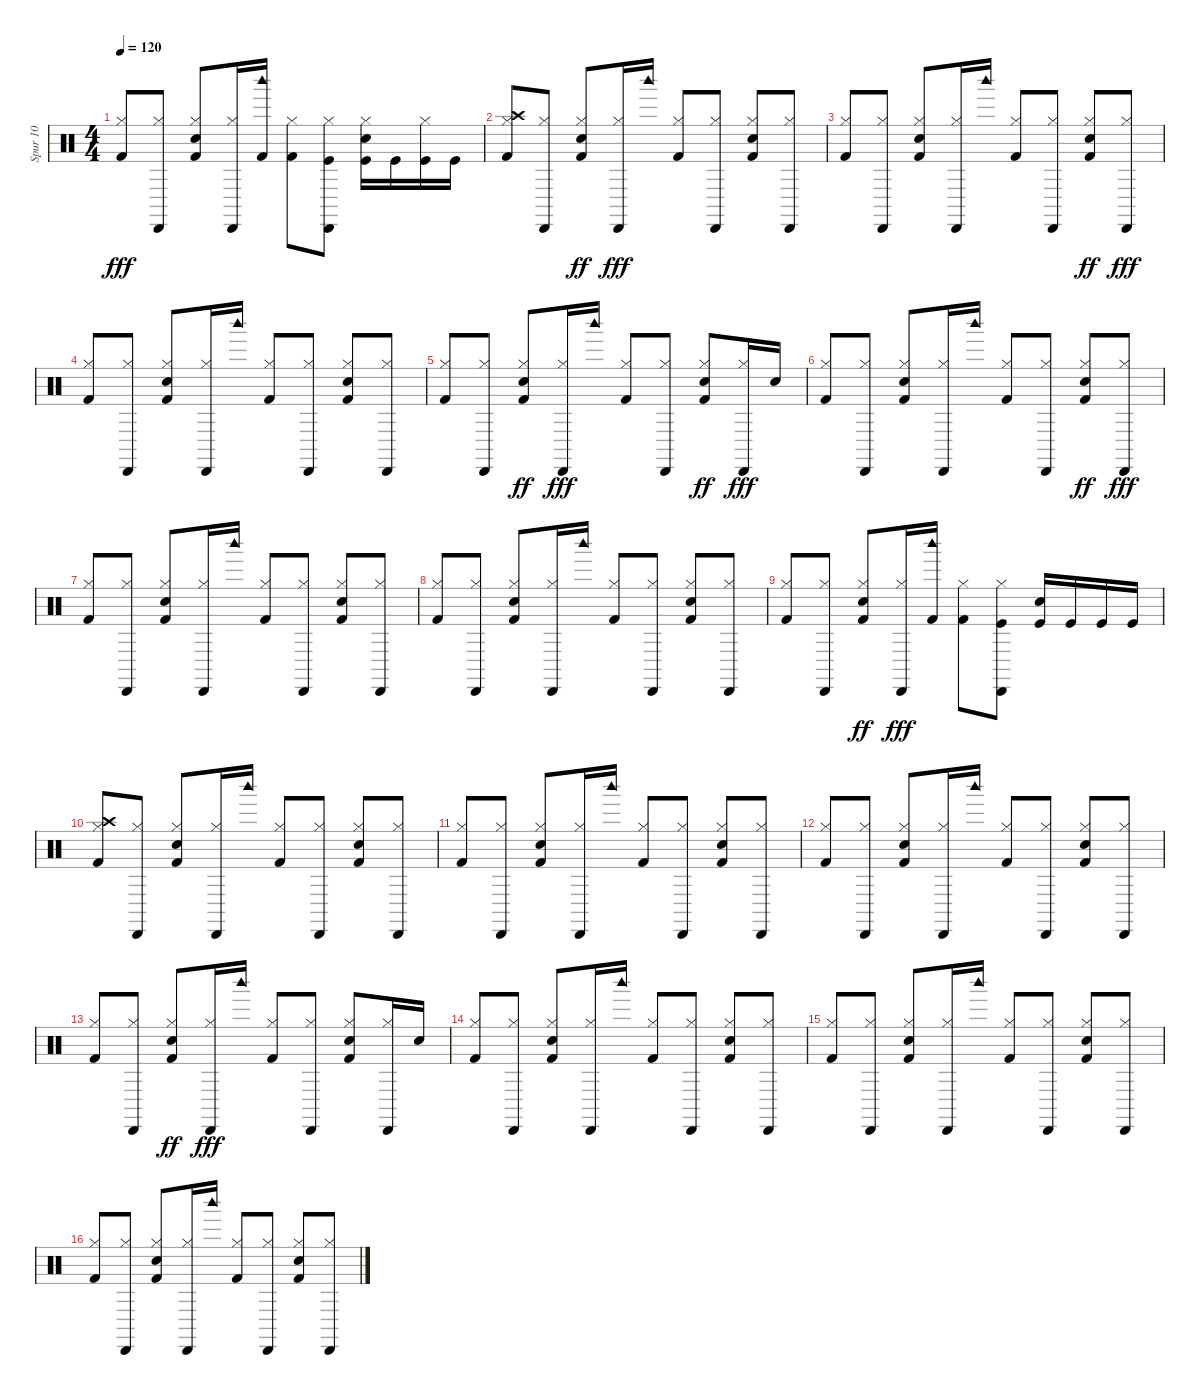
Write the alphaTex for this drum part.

\track ("Spur 10" "Spur 10") {instrument percussion}
\staff {score}
\articulation defaults
\ts (4 4)
\tempo 120
\clef neutral
\ks c
("Hi-Hat (closed)" "Kick (hit) 2").8{dy fff} ("Hi-Hat (closed)" "Cabasa (hit)").8 ("Hi-Hat (closed)" "Hand Clap (hit)" "Kick (hit) 2").8 ("Cabasa (hit)" "Hi-Hat (closed)").16 ("Woodblock high (hit)" "Kick (hit) 2").16 ("Kick (hit) 2" "Hi-Hat (closed)").8 ("Kick (hit)" "Cabasa (hit)" "Hi-Hat (closed)").8 ("Hand Clap (hit)" "Kick (hit)" "Hi-Hat (closed)").16 "Kick (hit)".16 ("Kick (hit)" "Hi-Hat (closed)").16 "Kick (hit)".16 |
("Hi-Hat (closed)" "Crash high (hit)" "Kick (hit) 2").8 ("Cabasa (hit)" "Hi-Hat (closed)").8 ("Hi-Hat (closed)" "Kick (hit) 2" "Hand Clap (hit)").8{dy ff} ("Hi-Hat (closed)" "Cabasa (hit)").16{dy fff} "Woodblock high (hit)".16 ("Hi-Hat (closed)" "Kick (hit) 2").8 ("Hi-Hat (closed)" "Cabasa (hit)").8 ("Hi-Hat (closed)" "Hand Clap (hit)" "Kick (hit) 2").8 ("Hi-Hat (closed)" "Cabasa (hit)").8 |
("Hi-Hat (closed)" "Kick (hit) 2").8 ("Hi-Hat (closed)" "Cabasa (hit)").8 ("Hand Clap (hit)" "Kick (hit) 2" "Hi-Hat (closed)").8 ("Cabasa (hit)" "Hi-Hat (closed)").16 "Woodblock high (hit)".16 ("Hi-Hat (closed)" "Kick (hit) 2").8 ("Cabasa (hit)" "Hi-Hat (closed)").8 ("Hi-Hat (closed)" "Kick (hit) 2" "Hand Clap (hit)").8{dy ff} ("Hi-Hat (closed)" "Cabasa (hit)").8{dy fff} |
("Hi-Hat (closed)" "Kick (hit) 2").8 ("Cabasa (hit)" "Hi-Hat (closed)").8 ("Hand Clap (hit)" "Kick (hit) 2" "Hi-Hat (closed)").8 ("Hi-Hat (closed)" "Cabasa (hit)").16 "Woodblock high (hit)".16 ("Kick (hit) 2" "Hi-Hat (closed)").8 ("Cabasa (hit)" "Hi-Hat (closed)").8 ("Hand Clap (hit)" "Hi-Hat (closed)" "Kick (hit) 2").8 ("Hi-Hat (closed)" "Cabasa (hit)").8 |
("Hi-Hat (closed)" "Kick (hit) 2").8 ("Cabasa (hit)" "Hi-Hat (closed)").8 ("Kick (hit) 2" "Hi-Hat (closed)" "Hand Clap (hit)").8{dy ff} ("Cabasa (hit)" "Hi-Hat (closed)").16{dy fff} "Woodblock high (hit)".16 ("Kick (hit) 2" "Hi-Hat (closed)").8 ("Cabasa (hit)" "Hi-Hat (closed)").8 ("Hi-Hat (closed)" "Kick (hit) 2" "Hand Clap (hit)").8{dy ff} ("Hi-Hat (closed)" "Cabasa (hit)").16{dy fff} "Hand Clap (hit)".16 |
("Hi-Hat (closed)" "Kick (hit) 2").8 ("Hi-Hat (closed)" "Cabasa (hit)").8 ("Hi-Hat (closed)" "Hand Clap (hit)" "Kick (hit) 2").8 ("Cabasa (hit)" "Hi-Hat (closed)").16 "Woodblock high (hit)".16 ("Hi-Hat (closed)" "Kick (hit) 2").8 ("Hi-Hat (closed)" "Cabasa (hit)").8 ("Hi-Hat (closed)" "Kick (hit) 2" "Hand Clap (hit)").8{dy ff} ("Hi-Hat (closed)" "Cabasa (hit)").8{dy fff} |
("Hi-Hat (closed)" "Kick (hit) 2").8 ("Hi-Hat (closed)" "Cabasa (hit)").8 ("Hand Clap (hit)" "Hi-Hat (closed)" "Kick (hit) 2").8 ("Hi-Hat (closed)" "Cabasa (hit)").16 "Woodblock high (hit)".16 ("Kick (hit) 2" "Hi-Hat (closed)").8 ("Hi-Hat (closed)" "Cabasa (hit)").8 ("Hand Clap (hit)" "Kick (hit) 2" "Hi-Hat (closed)").8 ("Cabasa (hit)" "Hi-Hat (closed)").8 |
("Kick (hit) 2" "Hi-Hat (closed)").8 ("Cabasa (hit)" "Hi-Hat (closed)").8 ("Hi-Hat (closed)" "Hand Clap (hit)" "Kick (hit) 2").8 ("Cabasa (hit)" "Hi-Hat (closed)").16 "Woodblock high (hit)".16 ("Kick (hit) 2" "Hi-Hat (closed)").8 ("Hi-Hat (closed)" "Cabasa (hit)").8 ("Kick (hit) 2" "Hand Clap (hit)" "Hi-Hat (closed)").8 ("Cabasa (hit)" "Hi-Hat (closed)").8 |
("Kick (hit) 2" "Hi-Hat (closed)").8 ("Cabasa (hit)" "Hi-Hat (closed)").8 ("Hi-Hat (closed)" "Kick (hit) 2" "Hand Clap (hit)").8{dy ff} ("Cabasa (hit)" "Hi-Hat (closed)").16{dy fff} ("Woodblock high (hit)" "Kick (hit) 2").16 ("Hi-Hat (closed)" "Kick (hit) 2").8 ("Cabasa (hit)" "Kick (hit)" "Hi-Hat (closed)").8 ("Kick (hit)" "Hand Clap (hit)").16 "Kick (hit)".16 "Kick (hit)".16 "Kick (hit)".16 |
("Crash high (hit)" "Kick (hit) 2" "Hi-Hat (closed)").8 ("Cabasa (hit)" "Hi-Hat (closed)").8 ("Hand Clap (hit)" "Kick (hit) 2" "Hi-Hat (closed)").8 ("Cabasa (hit)" "Hi-Hat (closed)").16 "Woodblock high (hit)".16 ("Kick (hit) 2" "Hi-Hat (closed)").8 ("Hi-Hat (closed)" "Cabasa (hit)").8 ("Kick (hit) 2" "Hand Clap (hit)" "Hi-Hat (closed)").8 ("Hi-Hat (closed)" "Cabasa (hit)").8 |
("Kick (hit) 2" "Hi-Hat (closed)").8 ("Cabasa (hit)" "Hi-Hat (closed)").8 ("Hi-Hat (closed)" "Hand Clap (hit)" "Kick (hit) 2").8 ("Cabasa (hit)" "Hi-Hat (closed)").16 "Woodblock high (hit)".16 ("Hi-Hat (closed)" "Kick (hit) 2").8 ("Cabasa (hit)" "Hi-Hat (closed)").8 ("Hand Clap (hit)" "Kick (hit) 2" "Hi-Hat (closed)").8 ("Cabasa (hit)" "Hi-Hat (closed)").8 |
("Kick (hit) 2" "Hi-Hat (closed)").8 ("Hi-Hat (closed)" "Cabasa (hit)").8 ("Kick (hit) 2" "Hand Clap (hit)" "Hi-Hat (closed)").8 ("Hi-Hat (closed)" "Cabasa (hit)").16 "Woodblock high (hit)".16 ("Kick (hit) 2" "Hi-Hat (closed)").8 ("Hi-Hat (closed)" "Cabasa (hit)").8 ("Hi-Hat (closed)" "Hand Clap (hit)" "Kick (hit) 2").8 ("Hi-Hat (closed)" "Cabasa (hit)").8 |
("Kick (hit) 2" "Hi-Hat (closed)").8 ("Cabasa (hit)" "Hi-Hat (closed)").8 ("Kick (hit) 2" "Hi-Hat (closed)" "Hand Clap (hit)").8{dy ff} ("Cabasa (hit)" "Hi-Hat (closed)").16{dy fff} "Woodblock high (hit)".16 ("Hi-Hat (closed)" "Kick (hit) 2").8 ("Cabasa (hit)" "Hi-Hat (closed)").8 ("Hi-Hat (closed)" "Hand Clap (hit)" "Kick (hit) 2").8 ("Cabasa (hit)" "Hi-Hat (closed)").16 "Hand Clap (hit)".16 |
("Kick (hit) 2" "Hi-Hat (closed)").8 ("Cabasa (hit)" "Hi-Hat (closed)").8 ("Hand Clap (hit)" "Kick (hit) 2" "Hi-Hat (closed)").8 ("Hi-Hat (closed)" "Cabasa (hit)").16 "Woodblock high (hit)".16 ("Hi-Hat (closed)" "Kick (hit) 2").8 ("Hi-Hat (closed)" "Cabasa (hit)").8 ("Hi-Hat (closed)" "Hand Clap (hit)" "Kick (hit) 2").8 ("Hi-Hat (closed)" "Cabasa (hit)").8 |
("Hi-Hat (closed)" "Kick (hit) 2").8 ("Cabasa (hit)" "Hi-Hat (closed)").8 ("Hand Clap (hit)" "Hi-Hat (closed)" "Kick (hit) 2").8 ("Hi-Hat (closed)" "Cabasa (hit)").16 "Woodblock high (hit)".16 ("Kick (hit) 2" "Hi-Hat (closed)").8 ("Hi-Hat (closed)" "Cabasa (hit)").8 ("Hand Clap (hit)" "Kick (hit) 2" "Hi-Hat (closed)").8 ("Hi-Hat (closed)" "Cabasa (hit)").8 |
("Hi-Hat (closed)" "Kick (hit) 2").8 ("Hi-Hat (closed)" "Cabasa (hit)").8 ("Hand Clap (hit)" "Kick (hit) 2" "Hi-Hat (closed)").8 ("Hi-Hat (closed)" "Cabasa (hit)").16 "Woodblock high (hit)".16 ("Hi-Hat (closed)" "Kick (hit) 2").8 ("Hi-Hat (closed)" "Cabasa (hit)").8 ("Hi-Hat (closed)" "Hand Clap (hit)" "Kick (hit) 2").8 ("Cabasa (hit)" "Hi-Hat (closed)").8
